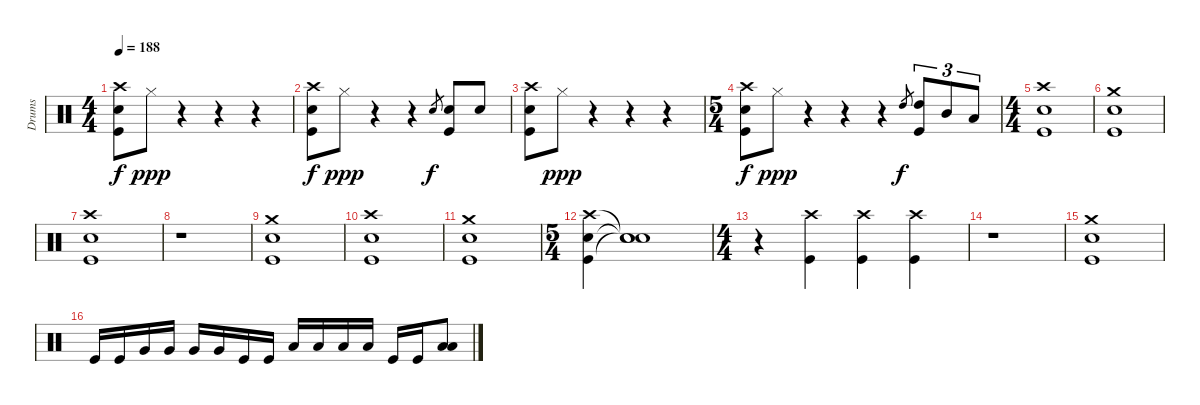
\track ("Drums" "Drums") {instrument percussion}
\staff {score}
\articulation defaults
\ts (4 4)
\tempo 188
\clef neutral
\ks c
("Crash high (hit)" "Electric Snare (hit)" "Kick (hit)").8{dy f} "Hi-Hat (closed)".8{dy ppp} r.4 r.4 r.4 |
("Crash high (hit)" "Electric Snare (hit)" "Kick (hit)").8{dy f} "Hi-Hat (closed)".8{dy ppp} r.4 r.4 "Electric Snare (hit)".8{gr dy f} ("Electric Snare (hit)" "Kick (hit)").8 "Electric Snare (hit)".8 |
("Crash high (hit)" "Electric Snare (hit)" "Kick (hit)").8 "Hi-Hat (closed)".8{dy ppp} r.4 r.4 r.4 |
\ts (5 4)
("Crash high (hit)" "Electric Snare (hit)" "Kick (hit)").8{dy f} "Hi-Hat (closed)".8{dy ppp} r.4 r.4 r.4 "High Tom (hit)".8{gr dy f} ("High Tom (hit)" "Kick (hit)").8{tu (3 2)} "Mid Tom (hit)".8{tu (3 2)} "Low Tom (hit)".8{tu (3 2)} |
\ts (4 4)
("Crash high (hit)" "Electric Snare (hit)" "Kick (hit)").1 |
("Crash medium (hit)" "Electric Snare (hit)" "Kick (hit)").1 |
("Crash high (hit)" "Electric Snare (hit)" "Kick (hit)").1 |
r.1 |
("Crash medium (hit)" "Electric Snare (hit)" "Kick (hit)").1 |
("Crash high (hit)" "Electric Snare (hit)" "Kick (hit)").1 |
("Crash medium (hit)" "Electric Snare (hit)" "Kick (hit)").1 |
\ts (5 4)
("Crash high (hit)" "Electric Snare (hit)" "Kick (hit)").4 ("Snare (hit)"{t} "Snare (hit)"{t} "Snare (hit)"{t}).1 |
\ts (4 4)
r.4 ("Crash high (hit)" "Kick (hit)").4 ("Crash high (hit)" "Kick (hit)").4 ("Crash high (hit)" "Kick (hit)").4 |
r.1 |
("Crash medium (hit)" "Electric Snare (hit)" "Kick (hit)").1 |
"Kick (hit)".16 "Kick (hit)".16 "Very Low Tom (hit)".16 "Very Low Tom (hit)".16 "Very Low Tom (hit)".16 "Very Low Tom (hit)".16 "Kick (hit)".16 "Kick (hit)".16 "Low Floor Tom (hit)".16 "Low Floor Tom (hit)".16 "Low Floor Tom (hit)".16 "Low Floor Tom (hit)".16 "Kick (hit)".16 "Kick (hit)".16 ("Low Tom (hit)" "Low Floor Tom (hit)").8
